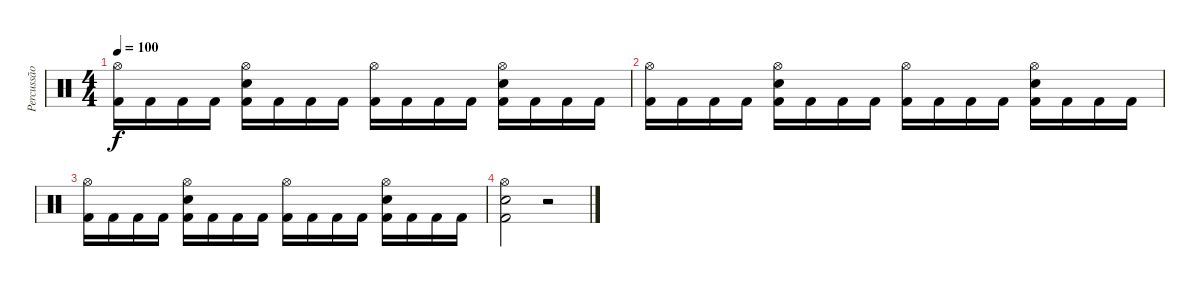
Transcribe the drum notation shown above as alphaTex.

\track ("Percussão" "Percussão") {instrument percussion}
\staff {score}
\articulation defaults
\ts (4 4)
\tempo 100
\clef neutral
\ks c
("Hi-Hat (open)" "Kick (hit) 2").16{dy f} "Kick (hit) 2".16 "Kick (hit) 2".16 "Kick (hit) 2".16 ("Hi-Hat (open)" "Electric Snare (hit)" "Kick (hit) 2").16 "Kick (hit) 2".16 "Kick (hit) 2".16 "Kick (hit) 2".16 ("Hi-Hat (open)" "Kick (hit) 2").16 "Kick (hit) 2".16 "Kick (hit) 2".16 "Kick (hit) 2".16 ("Hi-Hat (open)" "Electric Snare (hit)" "Kick (hit) 2").16 "Kick (hit) 2".16 "Kick (hit) 2".16 "Kick (hit) 2".16 |
("Hi-Hat (open)" "Kick (hit) 2").16 "Kick (hit) 2".16 "Kick (hit) 2".16 "Kick (hit) 2".16 ("Hi-Hat (open)" "Electric Snare (hit)" "Kick (hit) 2").16 "Kick (hit) 2".16 "Kick (hit) 2".16 "Kick (hit) 2".16 ("Hi-Hat (open)" "Kick (hit) 2").16 "Kick (hit) 2".16 "Kick (hit) 2".16 "Kick (hit) 2".16 ("Hi-Hat (open)" "Electric Snare (hit)" "Kick (hit) 2").16 "Kick (hit) 2".16 "Kick (hit) 2".16 "Kick (hit) 2".16 |
("Hi-Hat (open)" "Kick (hit) 2").16 "Kick (hit) 2".16 "Kick (hit) 2".16 "Kick (hit) 2".16 ("Hi-Hat (open)" "Electric Snare (hit)" "Kick (hit) 2").16 "Kick (hit) 2".16 "Kick (hit) 2".16 "Kick (hit) 2".16 ("Hi-Hat (open)" "Kick (hit) 2").16 "Kick (hit) 2".16 "Kick (hit) 2".16 "Kick (hit) 2".16 ("Hi-Hat (open)" "Electric Snare (hit)" "Kick (hit) 2").16 "Kick (hit) 2".16 "Kick (hit) 2".16 "Kick (hit) 2".16 |
("Hi-Hat (open)" "Electric Snare (hit)" "Kick (hit) 2").2 r.2
